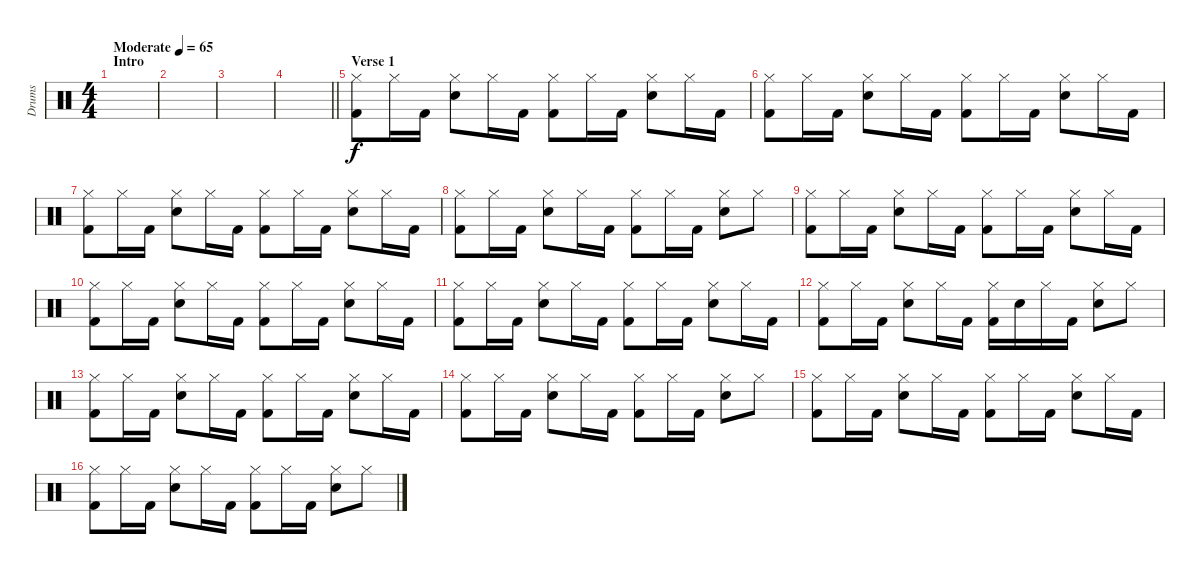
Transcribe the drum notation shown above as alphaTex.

\track ("Drums" "Drums") {instrument percussion}
\staff {score}
\articulation defaults
\ts (4 4)
\section ("" "Intro")
\tempo (65 "Moderate")
\clef neutral
\ks c
|
|
|
\barLineRight lightlight
|
\section ("" "Verse 1")
("Hi-Hat (closed)" "Kick (hit) 2").8 "Hi-Hat (closed)".16 "Kick (hit) 2".16 ("Hi-Hat (closed)" "Electric Snare (hit)").8 "Hi-Hat (closed)".16 "Kick (hit) 2".16 ("Hi-Hat (closed)" "Kick (hit) 2").8 "Hi-Hat (closed)".16 "Kick (hit) 2".16 ("Hi-Hat (closed)" "Electric Snare (hit)").8 "Hi-Hat (closed)".16 "Kick (hit) 2".16 |
("Hi-Hat (closed)" "Kick (hit) 2").8 "Hi-Hat (closed)".16 "Kick (hit) 2".16 ("Hi-Hat (closed)" "Electric Snare (hit)").8 "Hi-Hat (closed)".16 "Kick (hit) 2".16 ("Hi-Hat (closed)" "Kick (hit) 2").8 "Hi-Hat (closed)".16 "Kick (hit) 2".16 ("Hi-Hat (closed)" "Electric Snare (hit)").8 "Hi-Hat (closed)".16 "Kick (hit) 2".16 |
("Hi-Hat (closed)" "Kick (hit) 2").8 "Hi-Hat (closed)".16 "Kick (hit) 2".16 ("Hi-Hat (closed)" "Electric Snare (hit)").8 "Hi-Hat (closed)".16 "Kick (hit) 2".16 ("Hi-Hat (closed)" "Kick (hit) 2").8 "Hi-Hat (closed)".16 "Kick (hit) 2".16 ("Hi-Hat (closed)" "Electric Snare (hit)").8 "Hi-Hat (closed)".16 "Kick (hit) 2".16 |
("Hi-Hat (closed)" "Kick (hit) 2").8 "Hi-Hat (closed)".16 "Kick (hit) 2".16 ("Hi-Hat (closed)" "Electric Snare (hit)").8 "Hi-Hat (closed)".16 "Kick (hit) 2".16 ("Hi-Hat (closed)" "Kick (hit) 2").8 "Hi-Hat (closed)".16 "Kick (hit) 2".16 ("Hi-Hat (closed)" "Electric Snare (hit)").8 "Hi-Hat (closed)".8 |
("Hi-Hat (closed)" "Kick (hit) 2").8 "Hi-Hat (closed)".16 "Kick (hit) 2".16 ("Hi-Hat (closed)" "Electric Snare (hit)").8 "Hi-Hat (closed)".16 "Kick (hit) 2".16 ("Hi-Hat (closed)" "Kick (hit) 2").8 "Hi-Hat (closed)".16 "Kick (hit) 2".16 ("Hi-Hat (closed)" "Electric Snare (hit)").8 "Hi-Hat (closed)".16 "Kick (hit) 2".16 |
("Hi-Hat (closed)" "Kick (hit) 2").8 "Hi-Hat (closed)".16 "Kick (hit) 2".16 ("Hi-Hat (closed)" "Electric Snare (hit)").8 "Hi-Hat (closed)".16 "Kick (hit) 2".16 ("Hi-Hat (closed)" "Kick (hit) 2").8 "Hi-Hat (closed)".16 "Kick (hit) 2".16 ("Hi-Hat (closed)" "Electric Snare (hit)").8 "Hi-Hat (closed)".16 "Kick (hit) 2".16 |
("Hi-Hat (closed)" "Kick (hit) 2").8 "Hi-Hat (closed)".16 "Kick (hit) 2".16 ("Hi-Hat (closed)" "Electric Snare (hit)").8 "Hi-Hat (closed)".16 "Kick (hit) 2".16 ("Hi-Hat (closed)" "Kick (hit) 2").8 "Hi-Hat (closed)".16 "Kick (hit) 2".16 ("Hi-Hat (closed)" "Electric Snare (hit)").8 "Hi-Hat (closed)".16 "Kick (hit) 2".16 |
("Hi-Hat (closed)" "Kick (hit) 2").8 "Hi-Hat (closed)".16 "Kick (hit) 2".16 ("Hi-Hat (closed)" "Electric Snare (hit)").8 "Hi-Hat (closed)".16 "Kick (hit) 2".16 ("Hi-Hat (closed)" "Kick (hit) 2").16 "Electric Snare (hit)".16 "Hi-Hat (closed)".16 "Kick (hit) 2".16 ("Hi-Hat (closed)" "Electric Snare (hit)").8 "Hi-Hat (closed)".8 |
("Hi-Hat (closed)" "Kick (hit) 2").8 "Hi-Hat (closed)".16 "Kick (hit) 2".16 ("Hi-Hat (closed)" "Electric Snare (hit)").8 "Hi-Hat (closed)".16 "Kick (hit) 2".16 ("Hi-Hat (closed)" "Kick (hit) 2").8 "Hi-Hat (closed)".16 "Kick (hit) 2".16 ("Hi-Hat (closed)" "Electric Snare (hit)").8 "Hi-Hat (closed)".16 "Kick (hit) 2".16 |
("Hi-Hat (closed)" "Kick (hit) 2").8 "Hi-Hat (closed)".16 "Kick (hit) 2".16 ("Hi-Hat (closed)" "Electric Snare (hit)").8 "Hi-Hat (closed)".16 "Kick (hit) 2".16 ("Hi-Hat (closed)" "Kick (hit) 2").8 "Hi-Hat (closed)".16 "Kick (hit) 2".16 ("Hi-Hat (closed)" "Electric Snare (hit)").8 "Hi-Hat (closed)".8 |
("Hi-Hat (closed)" "Kick (hit) 2").8 "Hi-Hat (closed)".16 "Kick (hit) 2".16 ("Hi-Hat (closed)" "Electric Snare (hit)").8 "Hi-Hat (closed)".16 "Kick (hit) 2".16 ("Hi-Hat (closed)" "Kick (hit) 2").8 "Hi-Hat (closed)".16 "Kick (hit) 2".16 ("Hi-Hat (closed)" "Electric Snare (hit)").8 "Hi-Hat (closed)".16 "Kick (hit) 2".16 |
("Hi-Hat (closed)" "Kick (hit) 2").8 "Hi-Hat (closed)".16 "Kick (hit) 2".16 ("Hi-Hat (closed)" "Electric Snare (hit)").8 "Hi-Hat (closed)".16 "Kick (hit) 2".16 ("Hi-Hat (closed)" "Kick (hit) 2").8 "Hi-Hat (closed)".16 "Kick (hit) 2".16 ("Hi-Hat (closed)" "Electric Snare (hit)").8 "Hi-Hat (closed)".8
